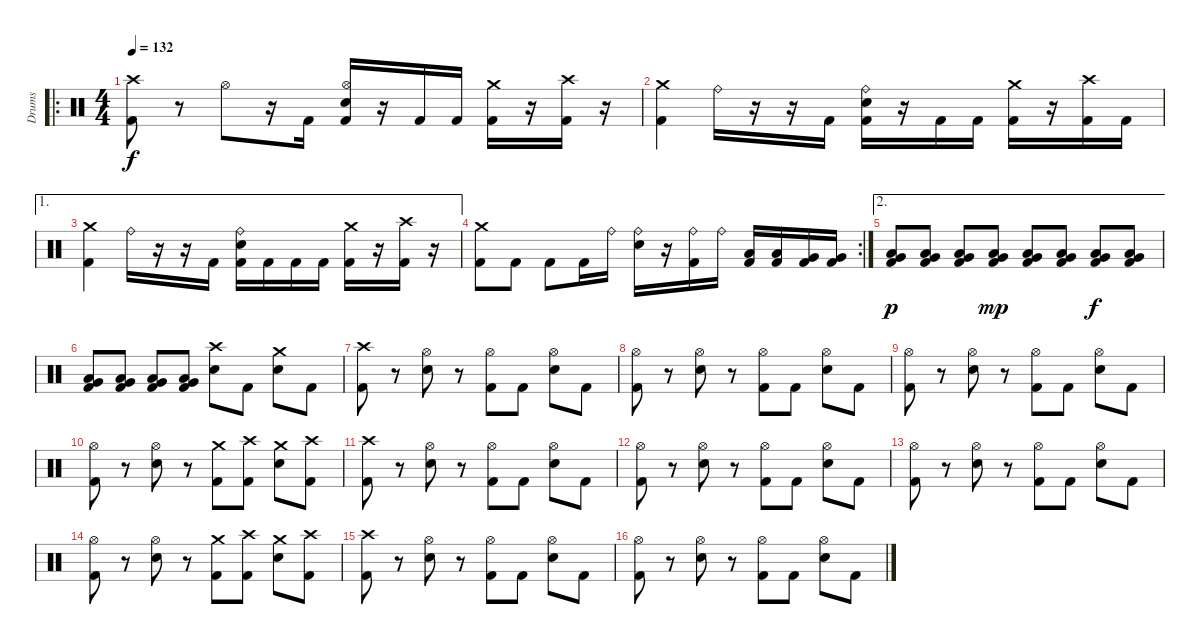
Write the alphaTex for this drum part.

\track ("Drums" "Drums") {instrument percussion}
\staff {score}
\articulation defaults
\ro
\ts (4 4)
\tempo 132
\clef neutral
\ks c
("Crash high (hit)" "Kick (hit) 2").8{dy f} r.8 "Hi-Hat (open)".8 r.16 "Kick (hit) 2".16 ("Hi-Hat (open)" "Electric Snare (hit)" "Kick (hit) 2").16 r.16 "Kick (hit) 2".16 "Kick (hit) 2".16 ("Crash medium (hit)" "Kick (hit) 2").16 r.16 ("Crash high (hit)" "Kick (hit) 2").16 r.16 |
("Crash medium (hit)" "Kick (hit) 2").4 "Ride (bell)".16 r.16 r.16 "Kick (hit) 2".16 ("Ride (bell)" "Electric Snare (hit)" "Kick (hit) 2").16 r.16 "Kick (hit) 2".16 "Kick (hit) 2".16 ("Crash medium (hit)" "Kick (hit) 2").16 r.16 ("Crash high (hit)" "Kick (hit) 2").16 "Kick (hit) 2".16 |
\ae 1
("Crash medium (hit)" "Kick (hit) 2").4 "Ride (bell)".16 r.16 r.16 "Kick (hit) 2".16 ("Ride (bell)" "Electric Snare (hit)" "Kick (hit) 2").16 "Kick (hit) 2".16 "Kick (hit) 2".16 "Kick (hit) 2".16 ("Crash medium (hit)" "Kick (hit) 2").16 r.16 ("Crash high (hit)" "Kick (hit) 2").16 r.16 |
\rc 2
("Crash medium (hit)" "Kick (hit) 2").8 "Kick (hit) 2".8 "Kick (hit) 2".8 "Kick (hit) 2".16 "Ride (bell)".16 ("Ride (bell)" "Electric Snare (hit)").16 r.16 ("Ride (bell)" "Kick (hit) 2").16 "Ride (bell)".16 ("Low Tom (hit)" "Kick (hit) 2").16 ("Low Tom (hit)" "Kick (hit) 2").16 ("Very Low Tom (hit)" "Kick (hit) 2").16 ("Very Low Tom (hit)" "Kick (hit) 2").16 |
\ae 2
("Low Tom (hit)" "Very Low Tom (hit)" "Kick (hit) 2").8{dy p} ("Low Tom (hit)" "Very Low Tom (hit)" "Kick (hit) 2").8 ("Low Tom (hit)" "Very Low Tom (hit)" "Kick (hit) 2").8 ("Low Tom (hit)" "Very Low Tom (hit)" "Kick (hit) 2").8{dy mp} ("Low Tom (hit)" "Very Low Tom (hit)" "Kick (hit) 2").8 ("Low Tom (hit)" "Very Low Tom (hit)" "Kick (hit) 2").8 ("Low Tom (hit)" "Very Low Tom (hit)" "Kick (hit) 2").8{dy f} ("Low Tom (hit)" "Very Low Tom (hit)" "Kick (hit) 2").8 |
("Low Tom (hit)" "Very Low Tom (hit)" "Kick (hit) 2").8 ("Low Tom (hit)" "Very Low Tom (hit)" "Kick (hit) 2").8 ("Low Tom (hit)" "Very Low Tom (hit)" "Kick (hit) 2").8 ("Low Tom (hit)" "Very Low Tom (hit)" "Kick (hit) 2").8 ("Crash high (hit)" "Electric Snare (hit)").8 "Kick (hit) 2".8 ("Crash medium (hit)" "Electric Snare (hit)").8 "Kick (hit) 2".8 |
("Crash high (hit)" "Kick (hit) 2").8 r.8 ("Hi-Hat (open)" "Electric Snare (hit)").8 r.8 ("Hi-Hat (open)" "Kick (hit) 2").8 "Kick (hit) 2".8 ("Hi-Hat (open)" "Electric Snare (hit)").8 "Kick (hit) 2".8 |
("Hi-Hat (open)" "Kick (hit) 2").8 r.8 ("Hi-Hat (open)" "Electric Snare (hit)").8 r.8 ("Hi-Hat (open)" "Kick (hit) 2").8 "Kick (hit) 2".8 ("Hi-Hat (open)" "Electric Snare (hit)").8 "Kick (hit) 2".8 |
("Hi-Hat (open)" "Kick (hit) 2").8 r.8 ("Hi-Hat (open)" "Electric Snare (hit)").8 r.8 ("Hi-Hat (open)" "Kick (hit) 2").8 "Kick (hit) 2".8 ("Hi-Hat (open)" "Electric Snare (hit)").8 "Kick (hit) 2".8 |
("Hi-Hat (open)" "Kick (hit) 2").8 r.8 ("Hi-Hat (open)" "Electric Snare (hit)").8 r.8 ("Crash medium (hit)" "Kick (hit) 2").8 ("Crash high (hit)" "Kick (hit) 2").8 ("Crash medium (hit)" "Electric Snare (hit)").8 ("Crash high (hit)" "Kick (hit) 2").8 |
("Crash high (hit)" "Kick (hit) 2").8 r.8 ("Hi-Hat (open)" "Electric Snare (hit)").8 r.8 ("Hi-Hat (open)" "Kick (hit) 2").8 "Kick (hit) 2".8 ("Hi-Hat (open)" "Electric Snare (hit)").8 "Kick (hit) 2".8 |
("Hi-Hat (open)" "Kick (hit) 2").8 r.8 ("Hi-Hat (open)" "Electric Snare (hit)").8 r.8 ("Hi-Hat (open)" "Kick (hit) 2").8 "Kick (hit) 2".8 ("Hi-Hat (open)" "Electric Snare (hit)").8 "Kick (hit) 2".8 |
("Hi-Hat (open)" "Kick (hit) 2").8 r.8 ("Hi-Hat (open)" "Electric Snare (hit)").8 r.8 ("Hi-Hat (open)" "Kick (hit) 2").8 "Kick (hit) 2".8 ("Hi-Hat (open)" "Electric Snare (hit)").8 "Kick (hit) 2".8 |
("Hi-Hat (open)" "Kick (hit) 2").8 r.8 ("Hi-Hat (open)" "Electric Snare (hit)").8 r.8 ("Crash medium (hit)" "Kick (hit) 2").8 ("Crash high (hit)" "Kick (hit) 2").8 ("Crash medium (hit)" "Electric Snare (hit)").8 ("Crash high (hit)" "Kick (hit) 2").8 |
("Crash high (hit)" "Kick (hit) 2").8 r.8 ("Hi-Hat (open)" "Electric Snare (hit)").8 r.8 ("Hi-Hat (open)" "Kick (hit) 2").8 "Kick (hit) 2".8 ("Hi-Hat (open)" "Electric Snare (hit)").8 "Kick (hit) 2".8 |
("Hi-Hat (open)" "Kick (hit) 2").8 r.8 ("Hi-Hat (open)" "Electric Snare (hit)").8 r.8 ("Hi-Hat (open)" "Kick (hit) 2").8 "Kick (hit) 2".8 ("Hi-Hat (open)" "Electric Snare (hit)").8 "Kick (hit) 2".8
